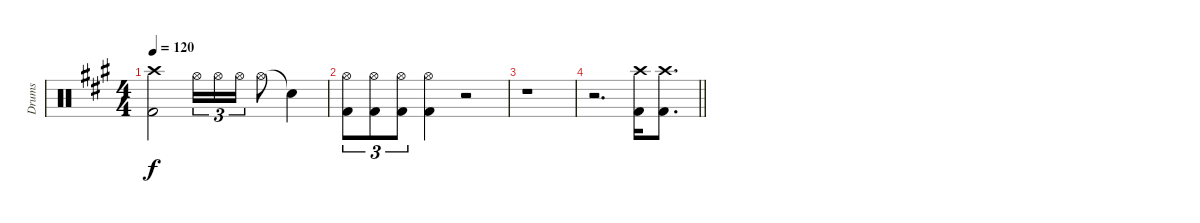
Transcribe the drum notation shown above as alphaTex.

\track ("Drums" "Drums") {instrument percussion}
\staff {score}
\articulation defaults
\ts (4 4)
\tempo 120
\clef neutral
\ks a
("Crash high (hit)" "Kick (hit) 2").2{dy f} "Hi-Hat (open)".16{tu (3 2)} "Hi-Hat (open)".16{tu (3 2)} "Hi-Hat (open)".16{tu (3 2)} "Hi-Hat (open)".8 "Snare (hit)"{t}.4 |
("Hi-Hat (open)" "Kick (hit) 2").8{tu (3 2)} ("Hi-Hat (open)" "Kick (hit) 2").8{tu (3 2)} ("Hi-Hat (open)" "Kick (hit) 2").8{tu (3 2)} ("Hi-Hat (open)" "Kick (hit) 2").4 r.2 |
r.1 |
\barLineRight lightlight
r.2{d} ("Crash high (hit)" "Kick (hit) 2").16 ("Crash high (hit)" "Kick (hit) 2").8{d}
